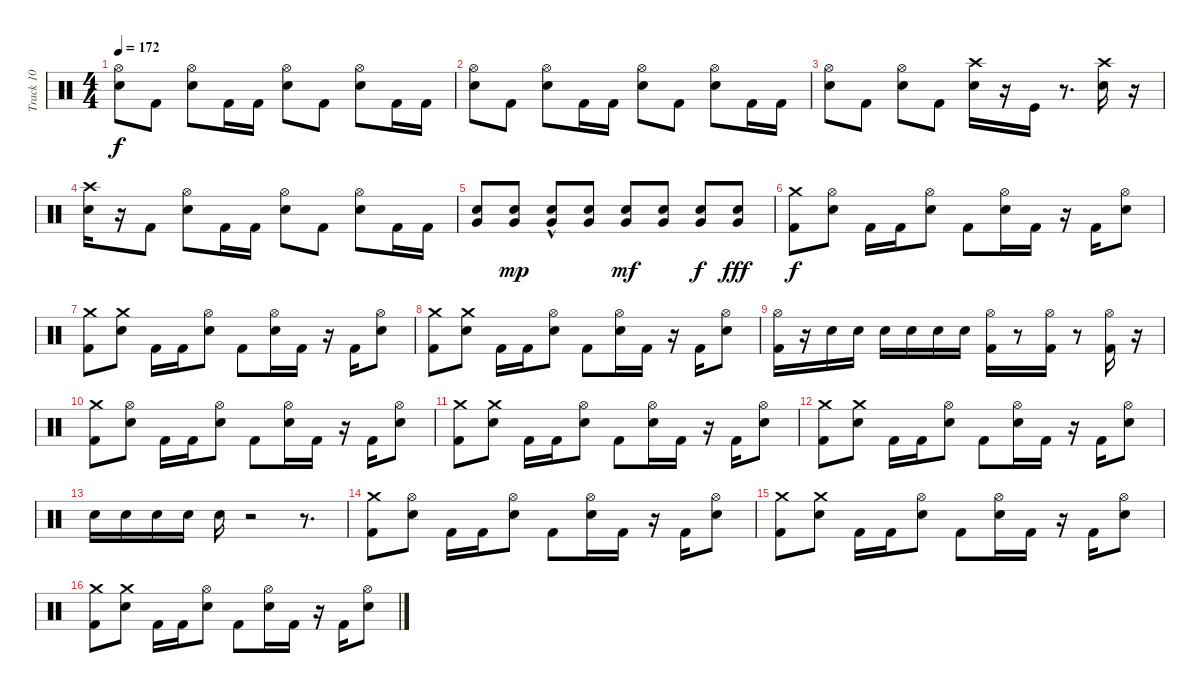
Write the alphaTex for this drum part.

\track ("Track 10" "Track 10") {instrument percussion}
\staff {score}
\articulation defaults
\ts (4 4)
\tempo 172
\clef neutral
\ks c
("Hi-Hat (open)" "Electric Snare (hit)").8{dy f} "Kick (hit) 2".8 ("Hi-Hat (open)" "Electric Snare (hit)").8 "Kick (hit) 2".16 "Kick (hit) 2".16 ("Hi-Hat (open)" "Electric Snare (hit)").8 "Kick (hit) 2".8 ("Hi-Hat (open)" "Electric Snare (hit)").8 "Kick (hit) 2".16 "Kick (hit) 2".16 |
("Hi-Hat (open)" "Electric Snare (hit)").8 "Kick (hit) 2".8 ("Hi-Hat (open)" "Electric Snare (hit)").8 "Kick (hit) 2".16 "Kick (hit) 2".16 ("Hi-Hat (open)" "Electric Snare (hit)").8 "Kick (hit) 2".8 ("Hi-Hat (open)" "Electric Snare (hit)").8 "Kick (hit) 2".16 "Kick (hit) 2".16 |
("Hi-Hat (open)" "Electric Snare (hit)").8 "Kick (hit) 2".8 ("Hi-Hat (open)" "Electric Snare (hit)").8 "Kick (hit) 2".8 ("Crash high (hit)" "Electric Snare (hit)").16 r.16 "Kick (hit)".16 r.8{d} ("Crash high (hit)" "Electric Snare (hit)").16 r.16 |
("Crash high (hit)" "Electric Snare (hit)").16 r.16 "Kick (hit) 2".8 ("Hi-Hat (open)" "Electric Snare (hit)").8 "Kick (hit) 2".16 "Kick (hit) 2".16 ("Hi-Hat (open)" "Electric Snare (hit)").8 "Kick (hit) 2".8 ("Hi-Hat (open)" "Electric Snare (hit)").8 "Kick (hit) 2".16 "Kick (hit) 2".16 |
("Snare (hit) 2" "Very Low Tom (hit)").8 ("Snare (hit) 2" "Very Low Tom (hit)").8{dy mp} ("Snare (hit) 2" "Very Low Tom (hit)"{hac}).8 ("Snare (hit) 2" "Very Low Tom (hit)").8 ("Snare (hit) 2" "Very Low Tom (hit)").8{dy mf} ("Snare (hit) 2" "Very Low Tom (hit)").8 ("Snare (hit) 2" "Very Low Tom (hit)").8{dy f} ("Snare (hit) 2" "Very Low Tom (hit)").8{dy fff} |
("Crash medium (hit)" "Kick (hit) 2").8{dy f} ("Hi-Hat (open)" "Electric Snare (hit)").8 "Kick (hit) 2".16 "Kick (hit) 2".16 ("Hi-Hat (open)" "Electric Snare (hit)").8 "Kick (hit) 2".8 ("Hi-Hat (open)" "Electric Snare (hit)").16 "Kick (hit) 2".16 r.16 "Kick (hit) 2".16 ("Hi-Hat (open)" "Electric Snare (hit)").8 |
("Crash medium (hit)" "Kick (hit) 2").8 ("Crash medium (hit)" "Electric Snare (hit)").8 "Kick (hit) 2".16 "Kick (hit) 2".16 ("Hi-Hat (open)" "Electric Snare (hit)").8 "Kick (hit) 2".8 ("Hi-Hat (open)" "Electric Snare (hit)").16 "Kick (hit) 2".16 r.16 "Kick (hit) 2".16 ("Hi-Hat (open)" "Electric Snare (hit)").8 |
("Crash medium (hit)" "Kick (hit) 2").8 ("Crash medium (hit)" "Electric Snare (hit)").8 "Kick (hit) 2".16 "Kick (hit) 2".16 ("Hi-Hat (open)" "Electric Snare (hit)").8 "Kick (hit) 2".8 ("Hi-Hat (open)" "Electric Snare (hit)").16 "Kick (hit) 2".16 r.16 "Kick (hit) 2".16 ("Hi-Hat (open)" "Electric Snare (hit)").8 |
("Hi-Hat (open)" "Kick (hit) 2").16 r.16 "Electric Snare (hit)".16 "Electric Snare (hit)".16 "Electric Snare (hit)".16 "Electric Snare (hit)".16 "Electric Snare (hit)".16 "Electric Snare (hit)".16 ("Hi-Hat (open)" "Kick (hit) 2").16 r.8 ("Hi-Hat (open)" "Kick (hit) 2").16 r.8 ("Hi-Hat (open)" "Kick (hit) 2").16 r.16 |
("Crash medium (hit)" "Kick (hit) 2").8 ("Hi-Hat (open)" "Electric Snare (hit)").8 "Kick (hit) 2".16 "Kick (hit) 2".16 ("Hi-Hat (open)" "Electric Snare (hit)").8 "Kick (hit) 2".8 ("Hi-Hat (open)" "Electric Snare (hit)").16 "Kick (hit) 2".16 r.16 "Kick (hit) 2".16 ("Hi-Hat (open)" "Electric Snare (hit)").8 |
("Crash medium (hit)" "Kick (hit) 2").8 ("Crash medium (hit)" "Electric Snare (hit)").8 "Kick (hit) 2".16 "Kick (hit) 2".16 ("Hi-Hat (open)" "Electric Snare (hit)").8 "Kick (hit) 2".8 ("Hi-Hat (open)" "Electric Snare (hit)").16 "Kick (hit) 2".16 r.16 "Kick (hit) 2".16 ("Hi-Hat (open)" "Electric Snare (hit)").8 |
("Crash medium (hit)" "Kick (hit) 2").8 ("Crash medium (hit)" "Electric Snare (hit)").8 "Kick (hit) 2".16 "Kick (hit) 2".16 ("Hi-Hat (open)" "Electric Snare (hit)").8 "Kick (hit) 2".8 ("Hi-Hat (open)" "Electric Snare (hit)").16 "Kick (hit) 2".16 r.16 "Kick (hit) 2".16 ("Hi-Hat (open)" "Electric Snare (hit)").8 |
"Electric Snare (hit)".16 "Electric Snare (hit)".16 "Electric Snare (hit)".16 "Electric Snare (hit)".16 "Electric Snare (hit)".16 r.2 r.8{d} |
("Crash medium (hit)" "Kick (hit) 2").8 ("Hi-Hat (open)" "Electric Snare (hit)").8 "Kick (hit) 2".16 "Kick (hit) 2".16 ("Hi-Hat (open)" "Electric Snare (hit)").8 "Kick (hit) 2".8 ("Hi-Hat (open)" "Electric Snare (hit)").16 "Kick (hit) 2".16 r.16 "Kick (hit) 2".16 ("Hi-Hat (open)" "Electric Snare (hit)").8 |
("Crash medium (hit)" "Kick (hit) 2").8 ("Crash medium (hit)" "Electric Snare (hit)").8 "Kick (hit) 2".16 "Kick (hit) 2".16 ("Hi-Hat (open)" "Electric Snare (hit)").8 "Kick (hit) 2".8 ("Hi-Hat (open)" "Electric Snare (hit)").16 "Kick (hit) 2".16 r.16 "Kick (hit) 2".16 ("Hi-Hat (open)" "Electric Snare (hit)").8 |
("Crash medium (hit)" "Kick (hit) 2").8 ("Crash medium (hit)" "Electric Snare (hit)").8 "Kick (hit) 2".16 "Kick (hit) 2".16 ("Hi-Hat (open)" "Electric Snare (hit)").8 "Kick (hit) 2".8 ("Hi-Hat (open)" "Electric Snare (hit)").16 "Kick (hit) 2".16 r.16 "Kick (hit) 2".16 ("Hi-Hat (open)" "Electric Snare (hit)").8
